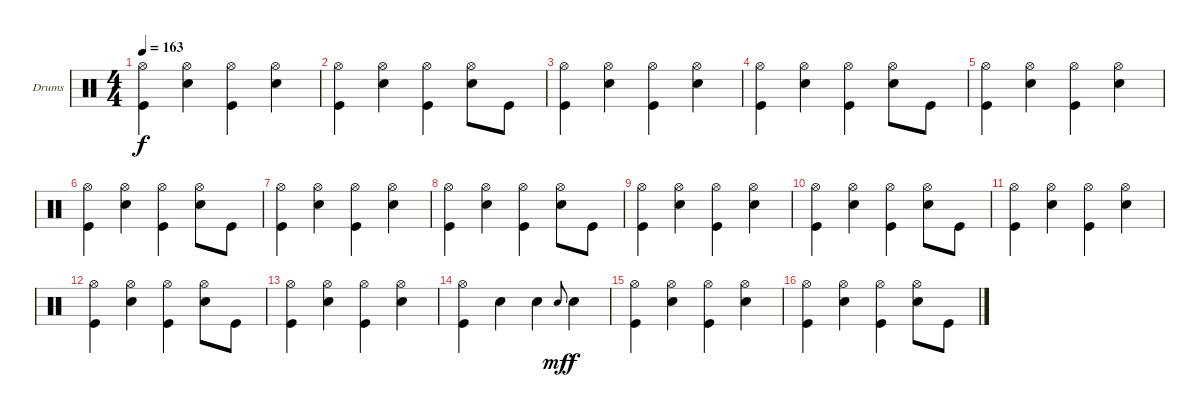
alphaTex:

\bracketExtendMode groupsimilarinstruments
\firstSystemTrackNameOrientation horizontal
\otherSystemsTrackNameOrientation horizontal
\track ("Drumkit" "Drums") {instrument percussion}
\staff {score}
\articulation defaults
\ts (4 4)
\tempo 163
\clef neutral
\ks c
("Hi-Hat (open)" "Kick (hit)").4{dy f} ("Hi-Hat (open)" "Snare (hit) 2").4 ("Hi-Hat (open)" "Kick (hit)").4 ("Hi-Hat (open)" "Snare (hit) 2").4 |
("Hi-Hat (open)" "Kick (hit)").4 ("Hi-Hat (open)" "Snare (hit) 2").4 ("Hi-Hat (open)" "Kick (hit)").4 ("Hi-Hat (open)" "Snare (hit) 2").8 "Kick (hit)".8 |
("Hi-Hat (open)" "Kick (hit)").4 ("Hi-Hat (open)" "Snare (hit) 2").4 ("Hi-Hat (open)" "Kick (hit)").4 ("Hi-Hat (open)" "Snare (hit) 2").4 |
("Hi-Hat (open)" "Kick (hit)").4 ("Hi-Hat (open)" "Snare (hit) 2").4 ("Hi-Hat (open)" "Kick (hit)").4 ("Hi-Hat (open)" "Snare (hit) 2").8 "Kick (hit)".8 |
("Hi-Hat (open)" "Kick (hit)").4 ("Hi-Hat (open)" "Snare (hit) 2").4 ("Hi-Hat (open)" "Kick (hit)").4 ("Hi-Hat (open)" "Snare (hit) 2").4 |
("Hi-Hat (open)" "Kick (hit)").4 ("Hi-Hat (open)" "Snare (hit) 2").4 ("Hi-Hat (open)" "Kick (hit)").4 ("Hi-Hat (open)" "Snare (hit) 2").8 "Kick (hit)".8 |
("Hi-Hat (open)" "Kick (hit)").4 ("Hi-Hat (open)" "Snare (hit) 2").4 ("Hi-Hat (open)" "Kick (hit)").4 ("Hi-Hat (open)" "Snare (hit) 2").4 |
("Hi-Hat (open)" "Kick (hit)").4 ("Hi-Hat (open)" "Snare (hit) 2").4 ("Hi-Hat (open)" "Kick (hit)").4 ("Hi-Hat (open)" "Snare (hit) 2").8 "Kick (hit)".8 |
("Hi-Hat (open)" "Kick (hit)").4 ("Hi-Hat (open)" "Snare (hit) 2").4 ("Hi-Hat (open)" "Kick (hit)").4 ("Hi-Hat (open)" "Snare (hit) 2").4 |
("Hi-Hat (open)" "Kick (hit)").4 ("Hi-Hat (open)" "Snare (hit) 2").4 ("Hi-Hat (open)" "Kick (hit)").4 ("Hi-Hat (open)" "Snare (hit) 2").8 "Kick (hit)".8 |
("Hi-Hat (open)" "Kick (hit)").4 ("Hi-Hat (open)" "Snare (hit) 2").4 ("Hi-Hat (open)" "Kick (hit)").4 ("Hi-Hat (open)" "Snare (hit) 2").4 |
("Hi-Hat (open)" "Kick (hit)").4 ("Hi-Hat (open)" "Snare (hit) 2").4 ("Hi-Hat (open)" "Kick (hit)").4 ("Hi-Hat (open)" "Snare (hit) 2").8 "Kick (hit)".8 |
("Hi-Hat (open)" "Kick (hit)").4 ("Hi-Hat (open)" "Snare (hit) 2").4 ("Hi-Hat (open)" "Kick (hit)").4 ("Hi-Hat (open)" "Snare (hit) 2").4 |
("Hi-Hat (open)" "Kick (hit)").4 "Snare (hit) 2".4 "Snare (hit) 2".4 "Snare (hit) 2".8{gr onbeat dy mf} "Snare (hit) 2".4{dy f} |
("Hi-Hat (open)" "Kick (hit)").4 ("Hi-Hat (open)" "Snare (hit) 2").4 ("Hi-Hat (open)" "Kick (hit)").4 ("Hi-Hat (open)" "Snare (hit) 2").4 |
("Hi-Hat (open)" "Kick (hit)").4 ("Hi-Hat (open)" "Snare (hit) 2").4 ("Hi-Hat (open)" "Kick (hit)").4 ("Hi-Hat (open)" "Snare (hit) 2").8 "Kick (hit)".8
